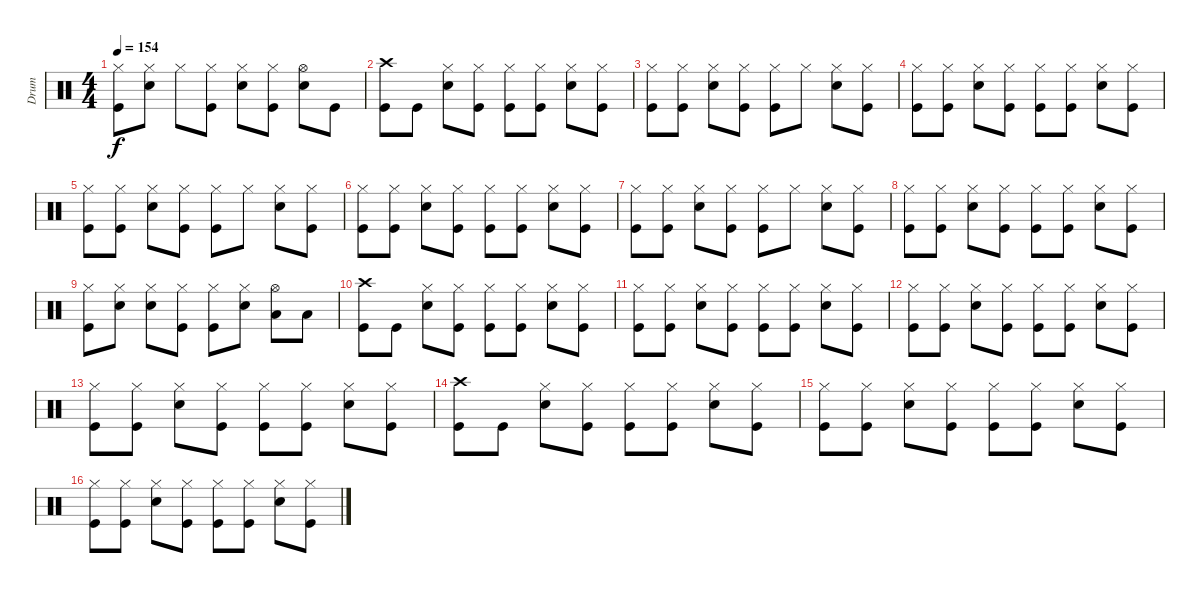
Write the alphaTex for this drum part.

\track ("Drum" "Drum") {instrument percussion}
\staff {score}
\articulation defaults
\ts (4 4)
\tempo 154
\clef neutral
\ks c
("Kick (hit)" "Hi-Hat (closed)").8{dy f} ("Snare (hit) 2" "Hi-Hat (closed)").8 "Hi-Hat (closed)".8 ("Kick (hit)" "Hi-Hat (closed)").8 ("Snare (hit) 2" "Hi-Hat (closed)").8 ("Kick (hit)" "Hi-Hat (closed)").8 ("Snare (hit) 2" "Hi-Hat (open)").8 "Kick (hit)".8 |
("Kick (hit)" "Crash high (hit)").8 "Kick (hit)".8 ("Snare (hit) 2" "Hi-Hat (closed)").8 ("Kick (hit)" "Hi-Hat (closed)").8 ("Kick (hit)" "Hi-Hat (closed)").8 ("Kick (hit)" "Hi-Hat (closed)").8 ("Snare (hit) 2" "Hi-Hat (closed)").8 ("Kick (hit)" "Hi-Hat (closed)").8 |
("Kick (hit)" "Hi-Hat (closed)").8 ("Kick (hit)" "Hi-Hat (closed)").8 ("Snare (hit) 2" "Hi-Hat (closed)").8 ("Kick (hit)" "Hi-Hat (closed)").8 ("Kick (hit)" "Hi-Hat (closed)").8 "Hi-Hat (closed)".8 ("Snare (hit) 2" "Hi-Hat (closed)").8 ("Kick (hit)" "Hi-Hat (closed)").8 |
("Kick (hit)" "Hi-Hat (closed)").8 ("Kick (hit)" "Hi-Hat (closed)").8 ("Snare (hit) 2" "Hi-Hat (closed)").8 ("Kick (hit)" "Hi-Hat (closed)").8 ("Kick (hit)" "Hi-Hat (closed)").8 ("Kick (hit)" "Hi-Hat (closed)").8 ("Snare (hit) 2" "Hi-Hat (closed)").8 ("Kick (hit)" "Hi-Hat (closed)").8 |
("Kick (hit)" "Hi-Hat (closed)").8 ("Kick (hit)" "Hi-Hat (closed)").8 ("Snare (hit) 2" "Hi-Hat (closed)").8 ("Kick (hit)" "Hi-Hat (closed)").8 ("Kick (hit)" "Hi-Hat (closed)").8 "Hi-Hat (closed)".8 ("Snare (hit) 2" "Hi-Hat (closed)").8 ("Kick (hit)" "Hi-Hat (closed)").8 |
("Kick (hit)" "Hi-Hat (closed)").8 ("Kick (hit)" "Hi-Hat (closed)").8 ("Snare (hit) 2" "Hi-Hat (closed)").8 ("Kick (hit)" "Hi-Hat (closed)").8 ("Kick (hit)" "Hi-Hat (closed)").8 ("Kick (hit)" "Hi-Hat (closed)").8 ("Snare (hit) 2" "Hi-Hat (closed)").8 ("Kick (hit)" "Hi-Hat (closed)").8 |
("Kick (hit)" "Hi-Hat (closed)").8 ("Kick (hit)" "Hi-Hat (closed)").8 ("Snare (hit) 2" "Hi-Hat (closed)").8 ("Kick (hit)" "Hi-Hat (closed)").8 ("Kick (hit)" "Hi-Hat (closed)").8 "Hi-Hat (closed)".8 ("Snare (hit) 2" "Hi-Hat (closed)").8 ("Kick (hit)" "Hi-Hat (closed)").8 |
("Kick (hit)" "Hi-Hat (closed)").8 ("Kick (hit)" "Hi-Hat (closed)").8 ("Snare (hit) 2" "Hi-Hat (closed)").8 ("Kick (hit)" "Hi-Hat (closed)").8 ("Kick (hit)" "Hi-Hat (closed)").8 ("Kick (hit)" "Hi-Hat (closed)").8 ("Snare (hit) 2" "Hi-Hat (closed)").8 ("Kick (hit)" "Hi-Hat (closed)").8 |
("Kick (hit)" "Hi-Hat (closed)").8 ("Snare (hit) 2" "Hi-Hat (closed)").8 ("Snare (hit) 2" "Hi-Hat (closed)").8 ("Kick (hit)" "Hi-Hat (closed)").8 ("Kick (hit)" "Hi-Hat (closed)").8 ("Snare (hit) 2" "Hi-Hat (closed)").8 ("Hi-Hat (open)" "Low Tom (hit)").8 "Low Floor Tom (hit)".8 |
("Kick (hit)" "Crash high (hit)").8 "Kick (hit)".8 ("Snare (hit) 2" "Hi-Hat (closed)").8 ("Kick (hit)" "Hi-Hat (closed)").8 ("Kick (hit)" "Hi-Hat (closed)").8 ("Kick (hit)" "Hi-Hat (closed)").8 ("Snare (hit) 2" "Hi-Hat (closed)").8 ("Kick (hit)" "Hi-Hat (closed)").8 |
("Kick (hit)" "Hi-Hat (closed)").8 ("Kick (hit)" "Hi-Hat (closed)").8 ("Snare (hit) 2" "Hi-Hat (closed)").8 ("Kick (hit)" "Hi-Hat (closed)").8 ("Kick (hit)" "Hi-Hat (closed)").8 ("Kick (hit)" "Hi-Hat (closed)").8 ("Snare (hit) 2" "Hi-Hat (closed)").8 ("Kick (hit)" "Hi-Hat (closed)").8 |
("Kick (hit)" "Hi-Hat (closed)").8 ("Kick (hit)" "Hi-Hat (closed)").8 ("Snare (hit) 2" "Hi-Hat (closed)").8 ("Kick (hit)" "Hi-Hat (closed)").8 ("Kick (hit)" "Hi-Hat (closed)").8 ("Kick (hit)" "Hi-Hat (closed)").8 ("Snare (hit) 2" "Hi-Hat (closed)").8 ("Kick (hit)" "Hi-Hat (closed)").8 |
("Kick (hit)" "Hi-Hat (closed)").8 ("Kick (hit)" "Hi-Hat (closed)").8 ("Snare (hit) 2" "Hi-Hat (closed)").8 ("Kick (hit)" "Hi-Hat (closed)").8 ("Kick (hit)" "Hi-Hat (closed)").8 ("Kick (hit)" "Hi-Hat (closed)").8 ("Snare (hit) 2" "Hi-Hat (closed)").8 ("Kick (hit)" "Hi-Hat (closed)").8 |
("Kick (hit)" "Crash high (hit)").8 "Kick (hit)".8 ("Snare (hit) 2" "Hi-Hat (closed)").8 ("Kick (hit)" "Hi-Hat (closed)").8 ("Kick (hit)" "Hi-Hat (closed)").8 ("Kick (hit)" "Hi-Hat (closed)").8 ("Snare (hit) 2" "Hi-Hat (closed)").8 ("Kick (hit)" "Hi-Hat (closed)").8 |
("Kick (hit)" "Hi-Hat (closed)").8 ("Kick (hit)" "Hi-Hat (closed)").8 ("Snare (hit) 2" "Hi-Hat (closed)").8 ("Kick (hit)" "Hi-Hat (closed)").8 ("Kick (hit)" "Hi-Hat (closed)").8 ("Kick (hit)" "Hi-Hat (closed)").8 ("Snare (hit) 2" "Hi-Hat (closed)").8 ("Kick (hit)" "Hi-Hat (closed)").8 |
("Kick (hit)" "Hi-Hat (closed)").8 ("Kick (hit)" "Hi-Hat (closed)").8 ("Snare (hit) 2" "Hi-Hat (closed)").8 ("Kick (hit)" "Hi-Hat (closed)").8 ("Kick (hit)" "Hi-Hat (closed)").8 ("Kick (hit)" "Hi-Hat (closed)").8 ("Snare (hit) 2" "Hi-Hat (closed)").8 ("Kick (hit)" "Hi-Hat (closed)").8
